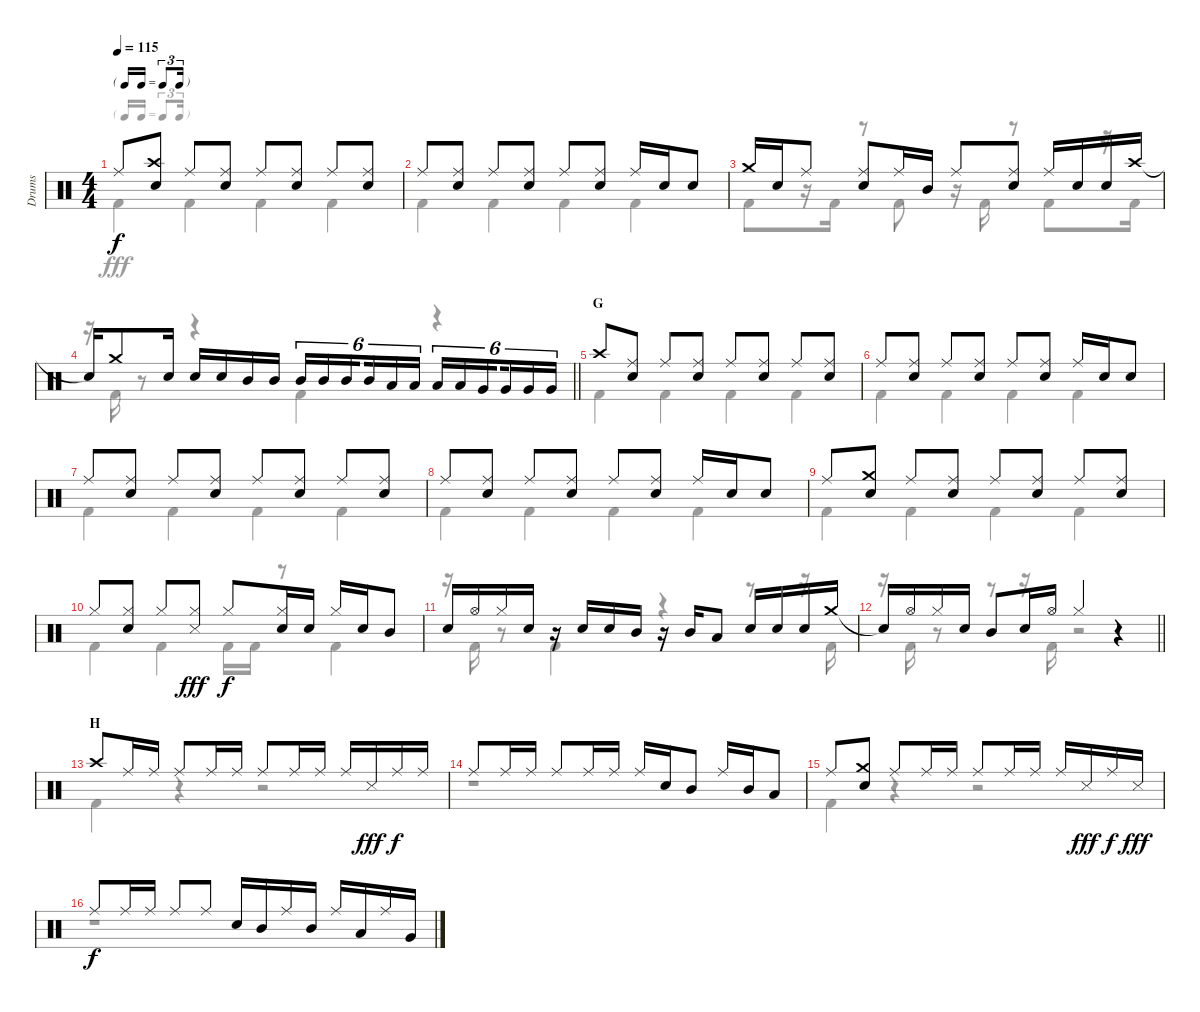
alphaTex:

\track ("Drums" "Drums") {instrument percussion}
\staff {score}
\articulation defaults
\voice
\ts (4 4)
\tf triplet16th
\tempo 115
\clef neutral
\ks c "Ride (middle)".8{dy f}
("Crash high (hit)" "Snare (hit) 2").8 "Ride (middle)".8 ("Ride (middle)" "Snare (hit) 2").8 "Ride (middle)".8 ("Ride (middle)" "Snare (hit) 2").8 "Ride (middle)".8 ("Ride (middle)" "Snare (hit) 2").8 |
"Ride (middle)".8 ("Ride (middle)" "Snare (hit) 2").8 "Ride (middle)".8 ("Ride (middle)" "Snare (hit) 2").8 "Ride (middle)".8 ("Ride (middle)" "Snare (hit) 2").8 "Ride (middle)".16 "Snare (hit) 2".16 "Snare (hit) 2".8 |
"Crash medium (hit)".16 "Snare (hit) 2".16 "Ride (middle)".8 ("Ride (middle)" "Snare (hit) 2").8 "Ride (middle)".16 "Mid Tom (hit)".16 "Ride (middle)".8 ("Ride (middle)" "Snare (hit) 2").8 "Ride (middle)".16 "Snare (hit) 2".16 "Snare (hit) 2".16 "Crash high (hit)".16 |
\barLineRight lightlight "Snare (hit)"{t}.16 "Crash medium (hit)".8 "Snare (hit) 2".16 "Snare (hit) 2".16 "Snare (hit) 2".16 "Mid Tom (hit)".16 "Mid Tom (hit)".16 "Mid Tom (hit)".16{tu (6 4)} "Mid Tom (hit)".16{tu (6 4)} "Mid Tom (hit)".16{tu (6 4) beam splitsecondary} "Mid Tom (hit)".16{tu (6 4)} "Low Tom (hit)".16{tu (6 4)} "Low Tom (hit)".16{tu (6 4)} "Low Tom (hit)".16{tu (6 4)} "Low Tom (hit)".16{tu (6 4)} "Very Low Tom (hit)".16{tu (6 4) beam splitsecondary} "Very Low Tom (hit)".16{tu (6 4)} "Very Low Tom (hit)".16{tu (6 4)} "Very Low Tom (hit)".16{tu (6 4)}
|
\section ("" "G")
"Crash high (hit)".8 ("Ride (middle)" "Snare (hit) 2").8 "Ride (middle)".8 ("Ride (middle)" "Snare (hit) 2").8 "Ride (middle)".8 ("Ride (middle)" "Snare (hit) 2").8 "Ride (middle)".8 ("Ride (middle)" "Snare (hit) 2").8 |
"Ride (middle)".8 ("Ride (middle)" "Snare (hit) 2").8 "Ride (middle)".8 ("Ride (middle)" "Snare (hit) 2").8 "Ride (middle)".8 ("Ride (middle)" "Snare (hit) 2").8 "Ride (middle)".16 "Snare (hit) 2".16 "Snare (hit) 2".8 |
"Ride (middle)".8 ("Ride (middle)" "Snare (hit) 2").8 "Ride (middle)".8 ("Ride (middle)" "Snare (hit) 2").8 "Ride (middle)".8 ("Ride (middle)" "Snare (hit) 2").8 "Ride (middle)".8 ("Ride (middle)" "Snare (hit) 2").8 |
"Ride (middle)".8 ("Ride (middle)" "Snare (hit) 2").8 "Ride (middle)".8 ("Ride (middle)" "Snare (hit) 2").8 "Ride (middle)".8 ("Ride (middle)" "Snare (hit) 2").8 "Ride (middle)".16 "Snare (hit) 2".16 "Snare (hit) 2".8 |
"Ride (middle)".8 ("Crash medium (hit)" "Snare (hit) 2").8 "Ride (middle)".8 ("Ride (middle)" "Snare (hit) 2").8 "Ride (middle)".8 ("Ride (middle)" "Snare (hit) 2").8 "Ride (middle)".8 ("Ride (middle)" "Snare (hit) 2").8 |
"Hi-Hat (closed)".8 ("Hi-Hat (closed)" "Snare (hit) 2").8 "Hi-Hat (closed)".8 ("Hi-Hat (closed)" "Snare (side stick) 3").8{dy fff} "Hi-Hat (closed)".8{dy f} ("Hi-Hat (closed)" "Snare (hit) 2").16 "Snare (hit) 2".16 "Hi-Hat (closed)".16 "Snare (hit) 2".16 "Mid Tom (hit)".8 |
"Snare (hit) 2".16 "Hi-Hat (open)".16 "Hi-Hat (closed)".16 "Snare (hit) 2".16 r.16 "Snare (hit) 2".16 "Snare (hit) 2".16 "Mid Tom (hit)".16 r.16 "Mid Tom (hit)".16 "Low Tom (hit)".8 "Snare (hit) 2".16 "Snare (hit) 2".16 "Snare (hit) 2".16 "Crash medium (hit)".16 |
\barLineRight lightlight "Snare (hit)"{t}.16 "Hi-Hat (open)".16 "Hi-Hat (closed)".16 "Snare (hit) 2".16 "Mid Tom (hit)".8 "Snare (hit) 2".16 "Hi-Hat (open)".16 "Hi-Hat (closed)".4
r.4 |
\section ("" "H")
"Crash high (hit)".8 "Ride (middle)".16 "Ride (middle)".16 "Ride (middle)".8 "Ride (middle)".16 "Ride (middle)".16 "Ride (middle)".8 "Ride (middle)".16 "Ride (middle)".16 "Ride (middle)".16 "Snare (side stick) 3".16{dy fff} "Ride (middle)".16{dy f} "Ride (middle)".16 |
"Ride (middle)".8 "Ride (middle)".16 "Ride (middle)".16 "Ride (middle)".8 "Ride (middle)".16 "Ride (middle)".16 "Ride (middle)".16 "Snare (hit) 2".16 "Mid Tom (hit)".8 "Ride (middle)".16 "Mid Tom (hit)".16 "Low Tom (hit)".8 |
"Ride (middle)".8 ("Crash medium (hit)" "Snare (hit) 2").8 "Ride (middle)".8 "Ride (middle)".16 "Ride (middle)".16 "Ride (middle)".8 "Ride (middle)".16 "Ride (middle)".16 "Ride (middle)".16 "Snare (side stick) 3".16{dy fff} "Ride (middle)".16{dy f} "Snare (side stick) 3".16{dy fff} |
"Ride (middle)".8{dy f} "Ride (middle)".16 "Ride (middle)".16 "Ride (middle)".8 "Ride (middle)".8 "Snare (hit) 2".16 "Mid Tom (hit)".16 "Ride (middle)".16 "Mid Tom (hit)".16 "Ride (middle)".16 "Low Tom (hit)".16 "Ride (middle)".16 "Very Low Tom (hit)".16
\voice
\clef neutral
\ottava regular
\simile none
\ks c "Kick (hit) 2".4{dy fff} "Kick (hit) 2".4 "Kick (hit) 2".4 "Kick (hit) 2".4
|
"Kick (hit) 2".4 "Kick (hit) 2".4 "Kick (hit) 2".4 "Kick (hit) 2".4 |
"Kick (hit) 2".8 r.16 "Kick (hit) 2".16 r.8 "Kick (hit) 2".8 r.16 "Kick (hit) 2".16 r.8 "Kick (hit) 2".8 r.16 "Kick (hit) 2".16 |
\barLineRight lightlight
r.16 "Kick (hit) 2".16 r.8 r.4 "Kick (hit) 2".4 r.4 |
"Kick (hit) 2".4 "Kick (hit) 2".4 "Kick (hit) 2".4 "Kick (hit) 2".4 |
"Kick (hit) 2".4 "Kick (hit) 2".4 "Kick (hit) 2".4 "Kick (hit) 2".4 |
"Kick (hit) 2".4 "Kick (hit) 2".4 "Kick (hit) 2".4 "Kick (hit) 2".4 |
"Kick (hit) 2".4 "Kick (hit) 2".4 "Kick (hit) 2".4 "Kick (hit) 2".4 |
"Kick (hit) 2".4 "Kick (hit) 2".4 "Kick (hit) 2".4 "Kick (hit) 2".4 |
"Kick (hit) 2".4 "Kick (hit) 2".4 "Kick (hit) 2".16 "Kick (hit) 2".16 r.8 "Kick (hit) 2".4 |
r.16 "Kick (hit) 2".16 r.8 "Kick (hit) 2".4 r.4 r.8 r.16 "Kick (hit) 2".16 |
\barLineRight lightlight
r.16 "Kick (hit) 2".16 r.8 r.8 r.16 "Kick (hit) 2".16 r.2 |
"Kick (hit) 2".4 r.4 r.2 |
r.1 |
"Kick (hit) 2".4 r.4 r.2 |
r.1
